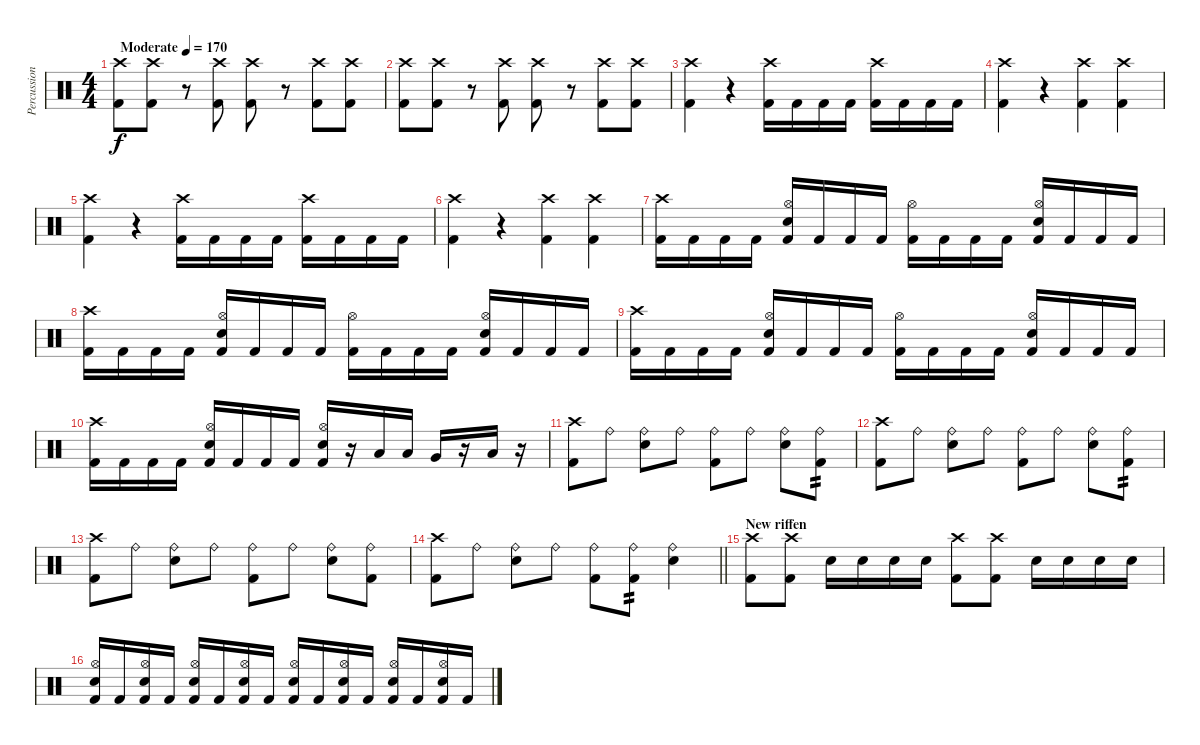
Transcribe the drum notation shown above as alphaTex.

\track ("Percussion" "Percussion") {instrument percussion}
\staff {score}
\articulation defaults
\ts (4 4)
\tempo (170 "Moderate")
\clef neutral
\ks c
("Crash high (hit)" "Kick (hit) 2").8{dy f} ("Crash high (hit)" "Kick (hit) 2").8 r.8 ("Crash high (hit)" "Kick (hit) 2").8 ("Crash high (hit)" "Kick (hit) 2").8 r.8 ("Crash high (hit)" "Kick (hit) 2").8 ("Crash high (hit)" "Kick (hit) 2").8 |
("Crash high (hit)" "Kick (hit) 2").8 ("Crash high (hit)" "Kick (hit) 2").8 r.8 ("Crash high (hit)" "Kick (hit) 2").8 ("Crash high (hit)" "Kick (hit) 2").8 r.8 ("Crash high (hit)" "Kick (hit) 2").8 ("Crash high (hit)" "Kick (hit) 2").8 |
("Crash high (hit)" "Kick (hit) 2").4 r.4 ("Crash high (hit)" "Kick (hit) 2").16 "Kick (hit) 2".16 "Kick (hit) 2".16 "Kick (hit) 2".16 ("Crash high (hit)" "Kick (hit) 2").16 "Kick (hit) 2".16 "Kick (hit) 2".16 "Kick (hit) 2".16 |
("Crash high (hit)" "Kick (hit) 2").4 r.4 ("Crash high (hit)" "Kick (hit) 2").4 ("Crash high (hit)" "Kick (hit) 2").4 |
("Crash high (hit)" "Kick (hit) 2").4 r.4 ("Crash high (hit)" "Kick (hit) 2").16 "Kick (hit) 2".16 "Kick (hit) 2".16 "Kick (hit) 2".16 ("Crash high (hit)" "Kick (hit) 2").16 "Kick (hit) 2".16 "Kick (hit) 2".16 "Kick (hit) 2".16 |
("Crash high (hit)" "Kick (hit) 2").4 r.4 ("Crash high (hit)" "Kick (hit) 2").4 ("Crash high (hit)" "Kick (hit) 2").4 |
("Crash high (hit)" "Kick (hit) 2").16 "Kick (hit) 2".16 "Kick (hit) 2".16 "Kick (hit) 2".16 ("Hi-Hat (open)" "Electric Snare (hit)" "Kick (hit) 2").16 "Kick (hit) 2".16 "Kick (hit) 2".16 "Kick (hit) 2".16 ("Hi-Hat (open)" "Kick (hit) 2").16 "Kick (hit) 2".16 "Kick (hit) 2".16 "Kick (hit) 2".16 ("Hi-Hat (open)" "Electric Snare (hit)" "Kick (hit) 2").16 "Kick (hit) 2".16 "Kick (hit) 2".16 "Kick (hit) 2".16 |
("Crash high (hit)" "Kick (hit) 2").16 "Kick (hit) 2".16 "Kick (hit) 2".16 "Kick (hit) 2".16 ("Hi-Hat (open)" "Electric Snare (hit)" "Kick (hit) 2").16 "Kick (hit) 2".16 "Kick (hit) 2".16 "Kick (hit) 2".16 ("Hi-Hat (open)" "Kick (hit) 2").16 "Kick (hit) 2".16 "Kick (hit) 2".16 "Kick (hit) 2".16 ("Hi-Hat (open)" "Electric Snare (hit)" "Kick (hit) 2").16 "Kick (hit) 2".16 "Kick (hit) 2".16 "Kick (hit) 2".16 |
("Crash high (hit)" "Kick (hit) 2").16 "Kick (hit) 2".16 "Kick (hit) 2".16 "Kick (hit) 2".16 ("Hi-Hat (open)" "Electric Snare (hit)" "Kick (hit) 2").16 "Kick (hit) 2".16 "Kick (hit) 2".16 "Kick (hit) 2".16 ("Hi-Hat (open)" "Kick (hit) 2").16 "Kick (hit) 2".16 "Kick (hit) 2".16 "Kick (hit) 2".16 ("Hi-Hat (open)" "Electric Snare (hit)" "Kick (hit) 2").16 "Kick (hit) 2".16 "Kick (hit) 2".16 "Kick (hit) 2".16 |
("Crash high (hit)" "Kick (hit) 2").16 "Kick (hit) 2".16 "Kick (hit) 2".16 "Kick (hit) 2".16 ("Hi-Hat (open)" "Electric Snare (hit)" "Kick (hit) 2").16 "Kick (hit) 2".16 "Kick (hit) 2".16 "Kick (hit) 2".16 ("Hi-Hat (open)" "Electric Snare (hit)" "Kick (hit) 2").16 r.16 "Low Tom (hit)".16 "Low Tom (hit)".16 "Very Low Tom (hit)".16 r.16 "Low Floor Tom (hit)".16 r.16 |
("Crash high (hit)" "Kick (hit) 2").8 "Ride (bell)".8 ("Ride (bell)" "Electric Snare (hit)").8 "Ride (bell)".8 ("Ride (bell)" "Kick (hit) 2").8 "Ride (bell)".8 ("Ride (bell)" "Electric Snare (hit)").8 ("Ride (bell)" "Kick (hit) 2").8{tp 2} |
("Crash high (hit)" "Kick (hit) 2").8 "Ride (bell)".8 ("Ride (bell)" "Electric Snare (hit)").8 "Ride (bell)".8 ("Ride (bell)" "Kick (hit) 2").8 "Ride (bell)".8 ("Ride (bell)" "Electric Snare (hit)").8 ("Ride (bell)" "Kick (hit) 2").8{tp 2} |
("Crash high (hit)" "Kick (hit) 2").8 "Ride (bell)".8 ("Ride (bell)" "Electric Snare (hit)").8 "Ride (bell)".8 ("Ride (bell)" "Kick (hit) 2").8 "Ride (bell)".8 ("Ride (bell)" "Electric Snare (hit)").8 ("Ride (bell)" "Kick (hit) 2").8 |
\barLineRight lightlight
("Crash high (hit)" "Kick (hit) 2").8 "Ride (bell)".8 ("Ride (bell)" "Electric Snare (hit)").8 "Ride (bell)".8 ("Ride (bell)" "Kick (hit) 2").8 ("Ride (bell)" "Kick (hit) 2").8{tp 2} ("Ride (bell)" "Electric Snare (hit)").4 |
\section ("" "New riffen")
("Crash high (hit)" "Kick (hit) 2").8 ("Crash high (hit)" "Kick (hit) 2").8 "Electric Snare (hit)".16 "Electric Snare (hit)".16 "Electric Snare (hit)".16 "Electric Snare (hit)".16 ("Crash high (hit)" "Kick (hit) 2").8 ("Crash high (hit)" "Kick (hit) 2").8 "Electric Snare (hit)".16 "Electric Snare (hit)".16 "Electric Snare (hit)".16 "Electric Snare (hit)".16 |
("Hi-Hat (open)" "Electric Snare (hit)" "Kick (hit) 2").16 "Kick (hit) 2".16 ("Hi-Hat (open)" "Electric Snare (hit)" "Kick (hit) 2").16 "Kick (hit) 2".16 ("Hi-Hat (open)" "Electric Snare (hit)" "Kick (hit) 2").16 "Kick (hit) 2".16 ("Hi-Hat (open)" "Electric Snare (hit)" "Kick (hit) 2").16 "Kick (hit) 2".16 ("Hi-Hat (open)" "Electric Snare (hit)" "Kick (hit) 2").16 "Kick (hit) 2".16 ("Hi-Hat (open)" "Electric Snare (hit)" "Kick (hit) 2").16 "Kick (hit) 2".16 ("Hi-Hat (open)" "Electric Snare (hit)" "Kick (hit) 2").16 "Kick (hit) 2".16 ("Hi-Hat (open)" "Electric Snare (hit)" "Kick (hit) 2").16 "Kick (hit) 2".16
